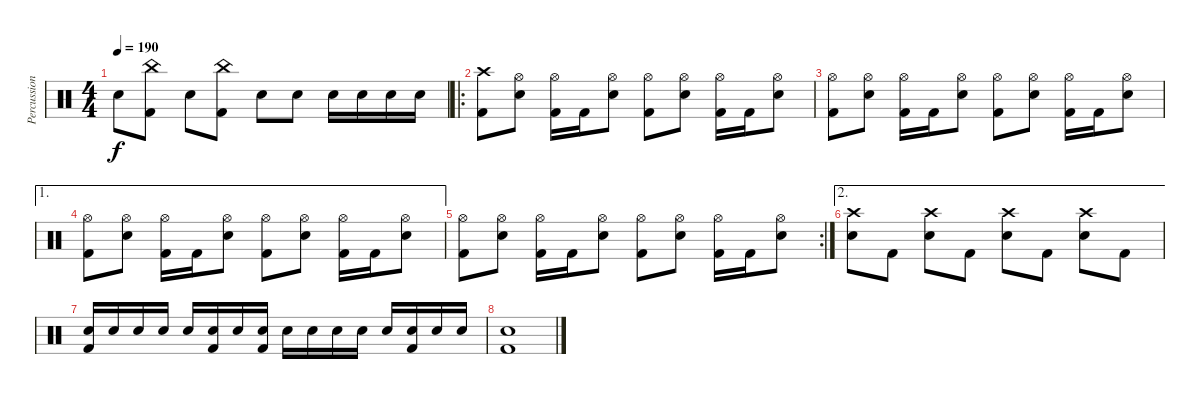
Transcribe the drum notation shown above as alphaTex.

\track ("Percussions" "Percussion") {instrument percussion}
\staff {score}
\articulation defaults
\ts (4 4)
\tempo 190
\clef neutral
\ks c "Snare (hit) 2".8{dy f}
("China (hit)" "Kick (hit) 2").8 "Snare (hit) 2".8 ("China (hit)" "Kick (hit) 2").8 "Snare (hit) 2".8 "Snare (hit) 2".8 "Snare (hit) 2".16 "Snare (hit) 2".16 "Snare (hit) 2".16 "Snare (hit) 2".16 |
\ro
("Crash high (hit)" "Kick (hit) 2").8 ("Hi-Hat (open)" "Snare (hit) 2").8 ("Hi-Hat (open)" "Kick (hit) 2").16 "Kick (hit) 2".16 ("Hi-Hat (open)" "Snare (hit) 2").8 ("Hi-Hat (open)" "Kick (hit) 2").8 ("Hi-Hat (open)" "Snare (hit) 2").8 ("Hi-Hat (open)" "Kick (hit) 2").16 "Kick (hit) 2".16 ("Hi-Hat (open)" "Snare (hit) 2").8 |
("Hi-Hat (open)" "Kick (hit) 2").8 ("Hi-Hat (open)" "Snare (hit) 2").8 ("Hi-Hat (open)" "Kick (hit) 2").16 "Kick (hit) 2".16 ("Hi-Hat (open)" "Snare (hit) 2").8 ("Hi-Hat (open)" "Kick (hit) 2").8 ("Hi-Hat (open)" "Snare (hit) 2").8 ("Hi-Hat (open)" "Kick (hit) 2").16 "Kick (hit) 2".16 ("Hi-Hat (open)" "Snare (hit) 2").8 |
\ae 1
("Hi-Hat (open)" "Kick (hit) 2").8 ("Hi-Hat (open)" "Snare (hit) 2").8 ("Hi-Hat (open)" "Kick (hit) 2").16 "Kick (hit) 2".16 ("Hi-Hat (open)" "Snare (hit) 2").8 ("Hi-Hat (open)" "Kick (hit) 2").8 ("Hi-Hat (open)" "Snare (hit) 2").8 ("Hi-Hat (open)" "Kick (hit) 2").16 "Kick (hit) 2".16 ("Hi-Hat (open)" "Snare (hit) 2").8 |
\rc 2
("Hi-Hat (open)" "Kick (hit) 2").8 ("Hi-Hat (open)" "Snare (hit) 2").8 ("Hi-Hat (open)" "Kick (hit) 2").16 "Kick (hit) 2".16 ("Hi-Hat (open)" "Snare (hit) 2").8 ("Hi-Hat (open)" "Kick (hit) 2").8 ("Hi-Hat (open)" "Snare (hit) 2").8 ("Hi-Hat (open)" "Kick (hit) 2").16 "Kick (hit) 2".16 ("Hi-Hat (open)" "Snare (hit) 2").8 |
\ae 2
("Crash high (hit)" "Snare (hit) 2").8 "Kick (hit) 2".8 ("Crash high (hit)" "Snare (hit) 2").8 "Kick (hit) 2".8 ("Crash high (hit)" "Snare (hit) 2").8 "Kick (hit) 2".8 ("Crash high (hit)" "Snare (hit) 2").8 "Kick (hit) 2".8 |
("Snare (hit) 2" "Kick (hit) 2").16 "Snare (hit) 2".16 "Snare (hit) 2".16 "Snare (hit) 2".16 "Snare (hit) 2".16 ("Snare (hit) 2" "Kick (hit) 2").16 "Snare (hit) 2".16 ("Snare (hit) 2" "Kick (hit) 2").16 "Snare (hit) 2".16 "Snare (hit) 2".16 "Snare (hit) 2".16 "Snare (hit) 2".16 "Snare (hit) 2".16 ("Snare (hit) 2" "Kick (hit) 2").16 "Snare (hit) 2".16 "Snare (hit) 2".16 |
("Snare (hit) 2" "Kick (hit) 2").1
